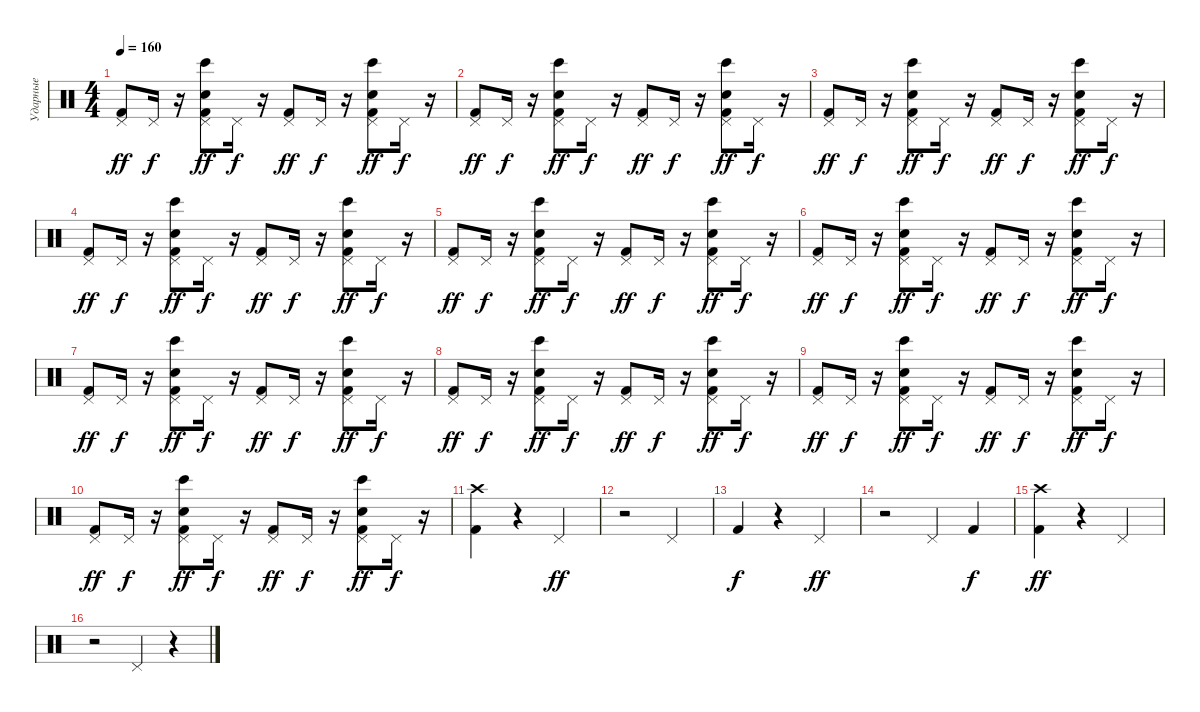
\track ("Ударные" "Ударные") {instrument percussion}
\staff {score}
\articulation defaults
\ts (4 4)
\tempo 160
\clef neutral
\ks c
("Kick (hit) 2" "Pedal Hi-Hat (hit)").8{dy ff} "Pedal Hi-Hat (hit)".16{dy f} r.16 ("Snare (hit) 2" "Kick (hit) 2" "Pedal Hi-Hat (hit)" "Bongo High (hit)").8{dy ff} "Pedal Hi-Hat (hit)".16{dy f} r.16 ("Kick (hit) 2" "Pedal Hi-Hat (hit)").8{dy ff} "Pedal Hi-Hat (hit)".16{dy f} r.16 ("Kick (hit) 2" "Snare (hit) 2" "Pedal Hi-Hat (hit)" "Bongo High (hit)").8{dy ff} "Pedal Hi-Hat (hit)".16{dy f} r.16 |
("Kick (hit) 2" "Pedal Hi-Hat (hit)").8{dy ff} "Pedal Hi-Hat (hit)".16{dy f} r.16 ("Snare (hit) 2" "Kick (hit) 2" "Pedal Hi-Hat (hit)" "Bongo High (hit)").8{dy ff} "Pedal Hi-Hat (hit)".16{dy f} r.16 ("Kick (hit) 2" "Pedal Hi-Hat (hit)").8{dy ff} "Pedal Hi-Hat (hit)".16{dy f} r.16 ("Kick (hit) 2" "Snare (hit) 2" "Pedal Hi-Hat (hit)" "Bongo High (hit)").8{dy ff} "Pedal Hi-Hat (hit)".16{dy f} r.16 |
("Kick (hit) 2" "Pedal Hi-Hat (hit)").8{dy ff} "Pedal Hi-Hat (hit)".16{dy f} r.16 ("Kick (hit) 2" "Snare (hit) 2" "Pedal Hi-Hat (hit)" "Bongo High (hit)").8{dy ff} "Pedal Hi-Hat (hit)".16{dy f} r.16 ("Kick (hit) 2" "Pedal Hi-Hat (hit)").8{dy ff} "Pedal Hi-Hat (hit)".16{dy f} r.16 ("Kick (hit) 2" "Snare (hit) 2" "Pedal Hi-Hat (hit)" "Bongo High (hit)").8{dy ff} "Pedal Hi-Hat (hit)".16{dy f} r.16 |
("Kick (hit) 2" "Pedal Hi-Hat (hit)").8{dy ff} "Pedal Hi-Hat (hit)".16{dy f} r.16 ("Kick (hit) 2" "Snare (hit) 2" "Pedal Hi-Hat (hit)" "Bongo High (hit)").8{dy ff} "Pedal Hi-Hat (hit)".16{dy f} r.16 ("Kick (hit) 2" "Pedal Hi-Hat (hit)").8{dy ff} "Pedal Hi-Hat (hit)".16{dy f} r.16 ("Kick (hit) 2" "Snare (hit) 2" "Pedal Hi-Hat (hit)" "Bongo High (hit)").8{dy ff} "Pedal Hi-Hat (hit)".16{dy f} r.16 |
("Kick (hit) 2" "Pedal Hi-Hat (hit)").8{dy ff} "Pedal Hi-Hat (hit)".16{dy f} r.16 ("Kick (hit) 2" "Snare (hit) 2" "Pedal Hi-Hat (hit)" "Bongo High (hit)").8{dy ff} "Pedal Hi-Hat (hit)".16{dy f} r.16 ("Kick (hit) 2" "Pedal Hi-Hat (hit)").8{dy ff} "Pedal Hi-Hat (hit)".16{dy f} r.16 ("Snare (hit) 2" "Kick (hit) 2" "Pedal Hi-Hat (hit)" "Bongo High (hit)").8{dy ff} "Pedal Hi-Hat (hit)".16{dy f} r.16 |
("Kick (hit) 2" "Pedal Hi-Hat (hit)").8{dy ff} "Pedal Hi-Hat (hit)".16{dy f} r.16 ("Kick (hit) 2" "Snare (hit) 2" "Pedal Hi-Hat (hit)" "Bongo High (hit)").8{dy ff} "Pedal Hi-Hat (hit)".16{dy f} r.16 ("Kick (hit) 2" "Pedal Hi-Hat (hit)").8{dy ff} "Pedal Hi-Hat (hit)".16{dy f} r.16 ("Kick (hit) 2" "Snare (hit) 2" "Pedal Hi-Hat (hit)" "Bongo High (hit)").8{dy ff} "Pedal Hi-Hat (hit)".16{dy f} r.16 |
("Kick (hit) 2" "Pedal Hi-Hat (hit)").8{dy ff} "Pedal Hi-Hat (hit)".16{dy f} r.16 ("Kick (hit) 2" "Snare (hit) 2" "Pedal Hi-Hat (hit)" "Bongo High (hit)").8{dy ff} "Pedal Hi-Hat (hit)".16{dy f} r.16 ("Kick (hit) 2" "Pedal Hi-Hat (hit)").8{dy ff} "Pedal Hi-Hat (hit)".16{dy f} r.16 ("Snare (hit) 2" "Kick (hit) 2" "Pedal Hi-Hat (hit)" "Bongo High (hit)").8{dy ff} "Pedal Hi-Hat (hit)".16{dy f} r.16 |
("Kick (hit) 2" "Pedal Hi-Hat (hit)").8{dy ff} "Pedal Hi-Hat (hit)".16{dy f} r.16 ("Snare (hit) 2" "Kick (hit) 2" "Pedal Hi-Hat (hit)" "Bongo High (hit)").8{dy ff} "Pedal Hi-Hat (hit)".16{dy f} r.16 ("Kick (hit) 2" "Pedal Hi-Hat (hit)").8{dy ff} "Pedal Hi-Hat (hit)".16{dy f} r.16 ("Kick (hit) 2" "Snare (hit) 2" "Pedal Hi-Hat (hit)" "Bongo High (hit)").8{dy ff} "Pedal Hi-Hat (hit)".16{dy f} r.16 |
("Kick (hit) 2" "Pedal Hi-Hat (hit)").8{dy ff} "Pedal Hi-Hat (hit)".16{dy f} r.16 ("Snare (hit) 2" "Kick (hit) 2" "Pedal Hi-Hat (hit)" "Bongo High (hit)").8{dy ff} "Pedal Hi-Hat (hit)".16{dy f} r.16 ("Kick (hit) 2" "Pedal Hi-Hat (hit)").8{dy ff} "Pedal Hi-Hat (hit)".16{dy f} r.16 ("Kick (hit) 2" "Snare (hit) 2" "Pedal Hi-Hat (hit)" "Bongo High (hit)").8{dy ff} "Pedal Hi-Hat (hit)".16{dy f} r.16 |
("Kick (hit) 2" "Pedal Hi-Hat (hit)").8{dy ff} "Pedal Hi-Hat (hit)".16{dy f} r.16 ("Kick (hit) 2" "Snare (hit) 2" "Pedal Hi-Hat (hit)" "Bongo High (hit)").8{dy ff} "Pedal Hi-Hat (hit)".16{dy f} r.16 ("Kick (hit) 2" "Pedal Hi-Hat (hit)").8{dy ff} "Pedal Hi-Hat (hit)".16{dy f} r.16 ("Kick (hit) 2" "Snare (hit) 2" "Pedal Hi-Hat (hit)" "Bongo High (hit)").8{dy ff} "Pedal Hi-Hat (hit)".16{dy f} r.16 |
("Kick (hit) 2" "Crash high (hit)").4 r.4 "Pedal Hi-Hat (hit)".4{dy ff} |
r.2 "Pedal Hi-Hat (hit)".4 |
"Kick (hit) 2".4{dy f} r.4 "Pedal Hi-Hat (hit)".4{dy ff} |
r.2 "Pedal Hi-Hat (hit)".4 "Kick (hit) 2".4{dy f} |
("Kick (hit) 2" "Crash high (hit)").4{dy ff} r.4 "Pedal Hi-Hat (hit)".4 |
r.2 "Pedal Hi-Hat (hit)".4 r.4
